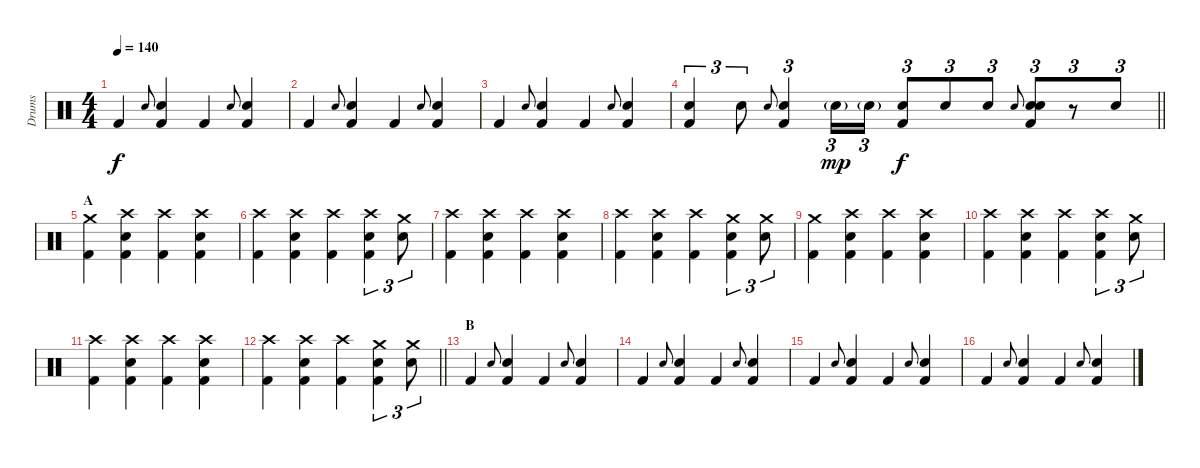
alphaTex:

\track ("Drums" "Drums") {instrument percussion}
\staff {score}
\articulation defaults
\ts (4 4)
\tempo 140
\clef neutral
\ks c "Kick (hit) 2".4{dy f} "Hand Clap (hit)".8{gr onbeat}
("Hand Clap (hit)" "Kick (hit) 2").4 "Kick (hit) 2".4 "Hand Clap (hit)".8{gr onbeat} ("Hand Clap (hit)" "Kick (hit) 2").4 |
"Kick (hit) 2".4 "Hand Clap (hit)".8{gr onbeat} ("Hand Clap (hit)" "Kick (hit) 2").4 "Kick (hit) 2".4 "Hand Clap (hit)".8{gr onbeat} ("Hand Clap (hit)" "Kick (hit) 2").4 |
"Kick (hit) 2".4 "Hand Clap (hit)".8{gr onbeat} ("Hand Clap (hit)" "Kick (hit) 2").4 "Kick (hit) 2".4 "Hand Clap (hit)".8{gr onbeat} ("Hand Clap (hit)" "Kick (hit) 2").4 |
\barLineRight lightlight
("Electric Snare (hit)" "Kick (hit) 2").4{tu (3 2)} "Electric Snare (hit)".8{tu (3 2)} "Hand Clap (hit)".8{gr onbeat} ("Kick (hit) 2" "Hand Clap (hit)").4{tu (3 2)} "Electric Snare (hit)"{g}.16{tu (3 2) dy mp} "Electric Snare (hit)"{g}.16{tu (3 2)} ("Kick (hit) 2" "Electric Snare (hit)").8{tu (3 2) dy f} "Electric Snare (hit)".8{tu (3 2)} "Electric Snare (hit)".8{tu (3 2)} "Hand Clap (hit)".8{gr onbeat} ("Hand Clap (hit)" "Kick (hit) 2" "Electric Snare (hit)").8{tu (3 2)} r.8{tu (3 2)} "Electric Snare (hit)".8{tu (3 2)} |
\section ("" "A")
("Kick (hit) 2" "Crash medium (hit)").4 ("Crash high (hit)" "Electric Snare (hit)" "Kick (hit) 2").4 ("Crash high (hit)" "Kick (hit) 2").4 ("Crash high (hit)" "Electric Snare (hit)" "Kick (hit) 2").4 |
("Crash high (hit)" "Kick (hit) 2").4 ("Crash high (hit)" "Electric Snare (hit)" "Kick (hit) 2").4 ("Crash high (hit)" "Kick (hit) 2").4 ("Crash high (hit)" "Electric Snare (hit)" "Kick (hit) 2").4{tu (3 2)} ("Electric Snare (hit)" "Crash medium (hit)").8{tu (3 2)} |
("Crash high (hit)" "Kick (hit) 2").4 ("Crash high (hit)" "Electric Snare (hit)" "Kick (hit) 2").4 ("Crash high (hit)" "Kick (hit) 2").4 ("Crash high (hit)" "Electric Snare (hit)" "Kick (hit) 2").4 |
("Crash high (hit)" "Kick (hit) 2").4 ("Crash high (hit)" "Electric Snare (hit)" "Kick (hit) 2").4 ("Crash high (hit)" "Kick (hit) 2").4 ("Crash medium (hit)" "Electric Snare (hit)" "Kick (hit) 2").4{tu (3 2)} ("Electric Snare (hit)" "Crash medium (hit)").8{tu (3 2)} |
("Kick (hit) 2" "Crash medium (hit)").4 ("Crash high (hit)" "Electric Snare (hit)" "Kick (hit) 2").4 ("Crash high (hit)" "Kick (hit) 2").4 ("Crash high (hit)" "Electric Snare (hit)" "Kick (hit) 2").4 |
("Crash high (hit)" "Kick (hit) 2").4 ("Crash high (hit)" "Electric Snare (hit)" "Kick (hit) 2").4 ("Crash high (hit)" "Kick (hit) 2").4 ("Crash high (hit)" "Electric Snare (hit)" "Kick (hit) 2").4{tu (3 2)} ("Electric Snare (hit)" "Crash medium (hit)").8{tu (3 2)} |
("Crash high (hit)" "Kick (hit) 2").4 ("Crash high (hit)" "Electric Snare (hit)" "Kick (hit) 2").4 ("Crash high (hit)" "Kick (hit) 2").4 ("Crash high (hit)" "Electric Snare (hit)" "Kick (hit) 2").4 |
\barLineRight lightlight
("Crash high (hit)" "Kick (hit) 2").4 ("Crash high (hit)" "Electric Snare (hit)" "Kick (hit) 2").4 ("Crash high (hit)" "Kick (hit) 2").4 ("Crash medium (hit)" "Electric Snare (hit)" "Kick (hit) 2").4{tu (3 2)} ("Electric Snare (hit)" "Crash medium (hit)").8{tu (3 2)} |
\section ("" "B")
"Kick (hit) 2".4 "Hand Clap (hit)".8{gr onbeat} ("Hand Clap (hit)" "Kick (hit) 2").4 "Kick (hit) 2".4 "Hand Clap (hit)".8{gr onbeat} ("Hand Clap (hit)" "Kick (hit) 2").4 |
"Kick (hit) 2".4 "Hand Clap (hit)".8{gr onbeat} ("Hand Clap (hit)" "Kick (hit) 2").4 "Kick (hit) 2".4 "Hand Clap (hit)".8{gr onbeat} ("Hand Clap (hit)" "Kick (hit) 2").4 |
"Kick (hit) 2".4 "Hand Clap (hit)".8{gr onbeat} ("Hand Clap (hit)" "Kick (hit) 2").4 "Kick (hit) 2".4 "Hand Clap (hit)".8{gr onbeat} ("Hand Clap (hit)" "Kick (hit) 2").4 |
"Kick (hit) 2".4 "Hand Clap (hit)".8{gr onbeat} ("Hand Clap (hit)" "Kick (hit) 2").4 "Kick (hit) 2".4 "Hand Clap (hit)".8{gr onbeat} ("Hand Clap (hit)" "Kick (hit) 2").4
